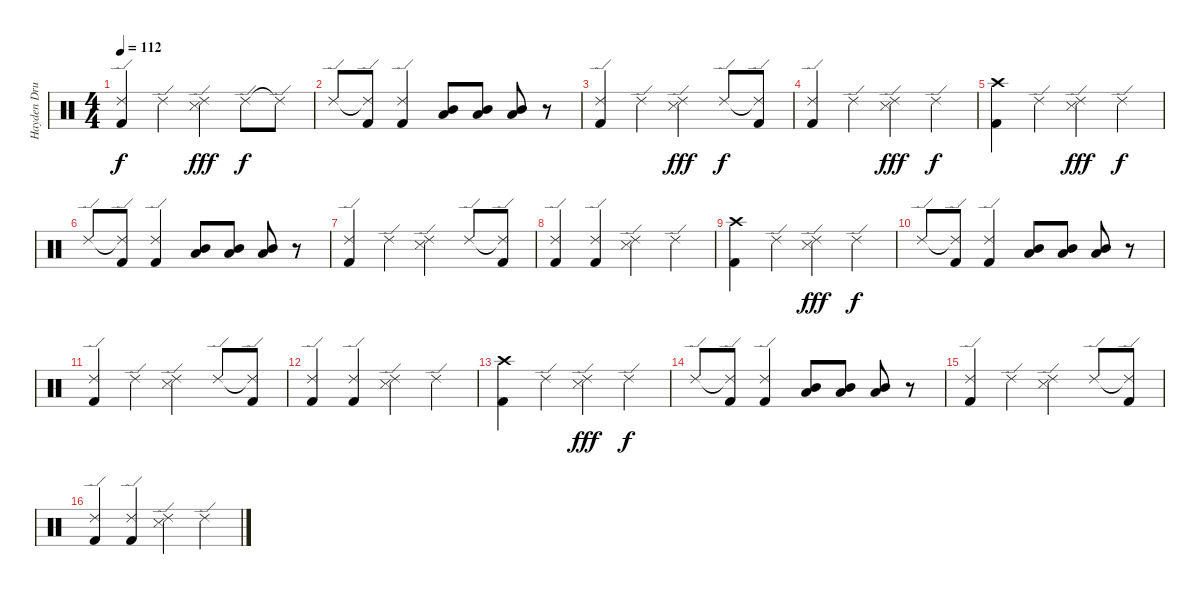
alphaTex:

\track ("Hayden Drums" "Hayden Dru") {instrument percussion}
\staff {score}
\articulation defaults
\ts (4 4)
\tempo 112
\clef neutral
\ks c
("Ride (edge) 2" "Kick (hit) 2").4{dy f} "Ride (edge) 2".4 ("Ride (edge) 2" "Snare (side stick) 3").4{dy fff} "Ride (edge) 2".8{dy f} "Ride (edge) 2"{t}.8 |
"Ride (edge) 2".8 ("Ride (edge) 2"{t} "Kick (hit) 2").8 ("Ride (edge) 2" "Kick (hit) 2").4 ("Low Tom (hit)" "Mid Tom (hit)").8 ("Low Tom (hit)" "Mid Tom (hit)").8 ("Low Tom (hit)" "Mid Tom (hit)").8 r.8 |
("Ride (edge) 2" "Kick (hit) 2").4 "Ride (edge) 2".4 ("Ride (edge) 2" "Snare (side stick) 3").4{dy fff} "Ride (edge) 2".8{dy f} ("Ride (edge) 2"{t} "Kick (hit) 2").8 |
("Ride (edge) 2" "Kick (hit) 2").4 "Ride (edge) 2".4 ("Ride (edge) 2" "Snare (side stick) 3").4{dy fff} "Ride (edge) 2".4{dy f} |
("Crash high (hit)" "Kick (hit) 2").4 "Ride (edge) 2".4 ("Ride (edge) 2" "Snare (side stick) 3").4{dy fff} "Ride (edge) 2".4{dy f} |
"Ride (edge) 2".8 ("Ride (edge) 2"{t} "Kick (hit) 2").8 ("Ride (edge) 2" "Kick (hit) 2").4 ("Low Tom (hit)" "Mid Tom (hit)").8 ("Low Tom (hit)" "Mid Tom (hit)").8 ("Low Tom (hit)" "Mid Tom (hit)").8 r.8 |
("Ride (edge) 2" "Kick (hit) 2").4 "Ride (edge) 2".4 ("Ride (edge) 2" "Snare (side stick) 3").4 "Ride (edge) 2".8 ("Ride (edge) 2"{t} "Kick (hit) 2").8 |
("Ride (edge) 2" "Kick (hit) 2").4 ("Ride (edge) 2" "Kick (hit) 2").4 ("Ride (edge) 2" "Snare (side stick) 3").4 "Ride (edge) 2".4 |
("Crash high (hit)" "Kick (hit) 2").4 "Ride (edge) 2".4 ("Ride (edge) 2" "Snare (side stick) 3").4{dy fff} "Ride (edge) 2".4{dy f} |
"Ride (edge) 2".8 ("Ride (edge) 2"{t} "Kick (hit) 2").8 ("Ride (edge) 2" "Kick (hit) 2").4 ("Low Tom (hit)" "Mid Tom (hit)").8 ("Low Tom (hit)" "Mid Tom (hit)").8 ("Low Tom (hit)" "Mid Tom (hit)").8 r.8 |
("Ride (edge) 2" "Kick (hit) 2").4 "Ride (edge) 2".4 ("Ride (edge) 2" "Snare (side stick) 3").4 "Ride (edge) 2".8 ("Ride (edge) 2"{t} "Kick (hit) 2").8 |
("Ride (edge) 2" "Kick (hit) 2").4 ("Ride (edge) 2" "Kick (hit) 2").4 ("Ride (edge) 2" "Snare (side stick) 3").4 "Ride (edge) 2".4 |
("Crash high (hit)" "Kick (hit) 2").4 "Ride (edge) 2".4 ("Ride (edge) 2" "Snare (side stick) 3").4{dy fff} "Ride (edge) 2".4{dy f} |
"Ride (edge) 2".8 ("Ride (edge) 2"{t} "Kick (hit) 2").8 ("Ride (edge) 2" "Kick (hit) 2").4 ("Low Tom (hit)" "Mid Tom (hit)").8 ("Low Tom (hit)" "Mid Tom (hit)").8 ("Low Tom (hit)" "Mid Tom (hit)").8 r.8 |
("Ride (edge) 2" "Kick (hit) 2").4 "Ride (edge) 2".4 ("Ride (edge) 2" "Snare (side stick) 3").4 "Ride (edge) 2".8 ("Ride (edge) 2"{t} "Kick (hit) 2").8 |
("Ride (edge) 2" "Kick (hit) 2").4 ("Ride (edge) 2" "Kick (hit) 2").4 ("Ride (edge) 2" "Snare (side stick) 3").4 "Ride (edge) 2".4
